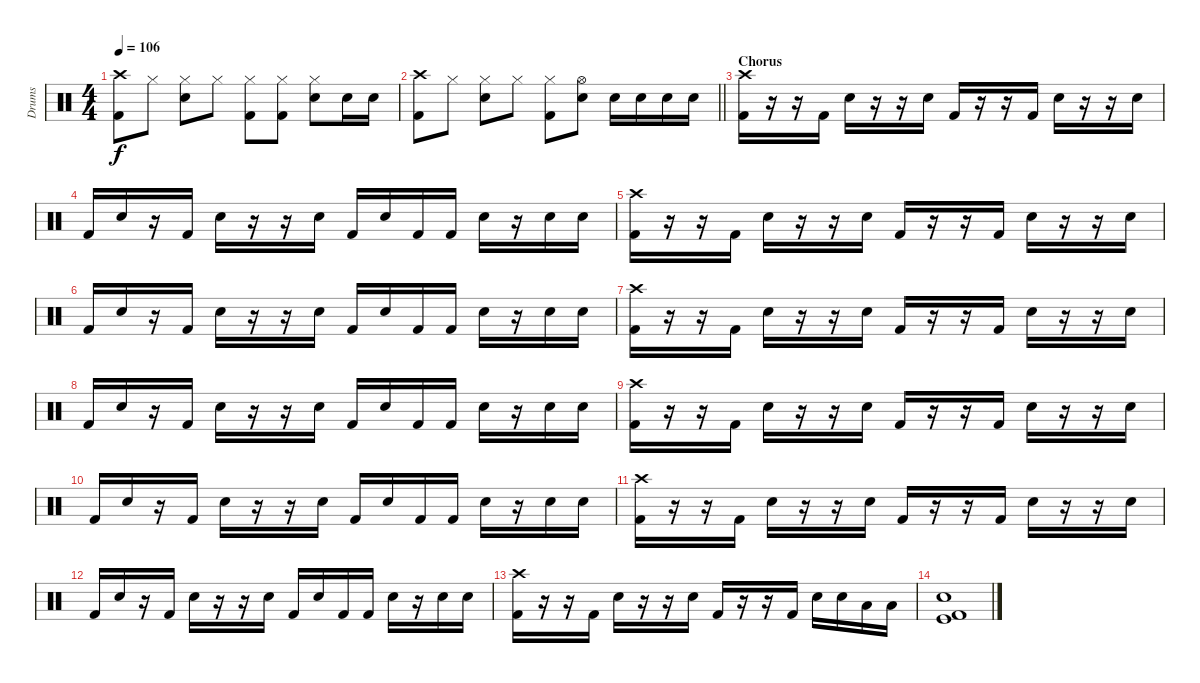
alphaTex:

\track ("Drums" "Drums") {instrument percussion}
\staff {score}
\articulation defaults
\ts (4 4)
\tempo 106
\clef neutral
\ks c
("Crash high (hit)" "Kick (hit) 2").8{dy f} "Hi-Hat (closed)".8 ("Hi-Hat (closed)" "Electric Snare (hit)").8 "Hi-Hat (closed)".8 ("Hi-Hat (closed)" "Kick (hit) 2").8 ("Hi-Hat (closed)" "Kick (hit) 2").8 ("Hi-Hat (closed)" "Electric Snare (hit)").8 "Electric Snare (hit)".16 "Electric Snare (hit)".16 |
\barLineRight lightlight
("Crash high (hit)" "Kick (hit) 2").8 "Hi-Hat (closed)".8 ("Hi-Hat (closed)" "Electric Snare (hit)").8 "Hi-Hat (closed)".8 ("Hi-Hat (closed)" "Kick (hit) 2").8 ("Hi-Hat (open)" "Electric Snare (hit)").8 "Electric Snare (hit)".16 "Electric Snare (hit)".16 "Electric Snare (hit)".16 "Electric Snare (hit)".16 |
\section ("" "Chorus")
("Crash high (hit)" "Kick (hit) 2").16 r.16 r.16 "Kick (hit) 2".16 "Electric Snare (hit)".16 r.16 r.16 "Electric Snare (hit)".16 "Kick (hit) 2".16 r.16 r.16 "Kick (hit) 2".16 "Electric Snare (hit)".16 r.16 r.16 "Electric Snare (hit)".16 |
"Kick (hit) 2".16 "Electric Snare (hit)".16 r.16 "Kick (hit) 2".16 "Electric Snare (hit)".16 r.16 r.16 "Electric Snare (hit)".16 "Kick (hit) 2".16 "Electric Snare (hit)".16 "Kick (hit) 2".16 "Kick (hit) 2".16 "Electric Snare (hit)".16 r.16 "Electric Snare (hit)".16 "Electric Snare (hit)".16 |
("Crash high (hit)" "Kick (hit) 2").16 r.16 r.16 "Kick (hit) 2".16 "Electric Snare (hit)".16 r.16 r.16 "Electric Snare (hit)".16 "Kick (hit) 2".16 r.16 r.16 "Kick (hit) 2".16 "Electric Snare (hit)".16 r.16 r.16 "Electric Snare (hit)".16 |
"Kick (hit) 2".16 "Electric Snare (hit)".16 r.16 "Kick (hit) 2".16 "Electric Snare (hit)".16 r.16 r.16 "Electric Snare (hit)".16 "Kick (hit) 2".16 "Electric Snare (hit)".16 "Kick (hit) 2".16 "Kick (hit) 2".16 "Electric Snare (hit)".16 r.16 "Electric Snare (hit)".16 "Electric Snare (hit)".16 |
("Crash high (hit)" "Kick (hit) 2").16 r.16 r.16 "Kick (hit) 2".16 "Electric Snare (hit)".16 r.16 r.16 "Electric Snare (hit)".16 "Kick (hit) 2".16 r.16 r.16 "Kick (hit) 2".16 "Electric Snare (hit)".16 r.16 r.16 "Electric Snare (hit)".16 |
"Kick (hit) 2".16 "Electric Snare (hit)".16 r.16 "Kick (hit) 2".16 "Electric Snare (hit)".16 r.16 r.16 "Electric Snare (hit)".16 "Kick (hit) 2".16 "Electric Snare (hit)".16 "Kick (hit) 2".16 "Kick (hit) 2".16 "Electric Snare (hit)".16 r.16 "Electric Snare (hit)".16 "Electric Snare (hit)".16 |
("Crash high (hit)" "Kick (hit) 2").16 r.16 r.16 "Kick (hit) 2".16 "Electric Snare (hit)".16 r.16 r.16 "Electric Snare (hit)".16 "Kick (hit) 2".16 r.16 r.16 "Kick (hit) 2".16 "Electric Snare (hit)".16 r.16 r.16 "Electric Snare (hit)".16 |
"Kick (hit) 2".16 "Electric Snare (hit)".16 r.16 "Kick (hit) 2".16 "Electric Snare (hit)".16 r.16 r.16 "Electric Snare (hit)".16 "Kick (hit) 2".16 "Electric Snare (hit)".16 "Kick (hit) 2".16 "Kick (hit) 2".16 "Electric Snare (hit)".16 r.16 "Electric Snare (hit)".16 "Electric Snare (hit)".16 |
("Crash high (hit)" "Kick (hit) 2").16 r.16 r.16 "Kick (hit) 2".16 "Electric Snare (hit)".16 r.16 r.16 "Electric Snare (hit)".16 "Kick (hit) 2".16 r.16 r.16 "Kick (hit) 2".16 "Electric Snare (hit)".16 r.16 r.16 "Electric Snare (hit)".16 |
"Kick (hit) 2".16 "Electric Snare (hit)".16 r.16 "Kick (hit) 2".16 "Electric Snare (hit)".16 r.16 r.16 "Electric Snare (hit)".16 "Kick (hit) 2".16 "Electric Snare (hit)".16 "Kick (hit) 2".16 "Kick (hit) 2".16 "Electric Snare (hit)".16 r.16 "Electric Snare (hit)".16 "Electric Snare (hit)".16 |
("Crash high (hit)" "Kick (hit) 2").16 r.16 r.16 "Kick (hit) 2".16 "Electric Snare (hit)".16 r.16 r.16 "Electric Snare (hit)".16 "Kick (hit) 2".16 r.16 r.16 "Kick (hit) 2".16 "Electric Snare (hit)".16 "Electric Snare (hit)".16 "Low Tom (hit)".16 "Low Tom (hit)".16 |
("Electric Snare (hit)" "Kick (hit)" "Kick (hit) 2").1
